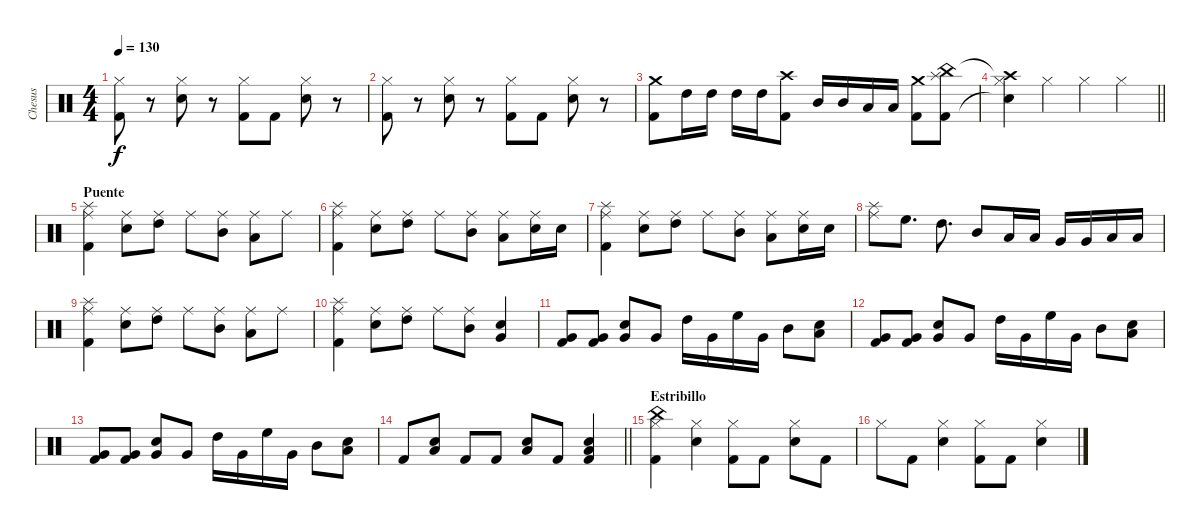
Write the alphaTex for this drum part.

\track ("Chesus" "Chesus") {instrument percussion}
\staff {score}
\articulation defaults
\ts (4 4)
\tempo 130
\clef neutral
\ks c
("Hi-Hat (closed)" "Kick (hit) 2").8{dy f} r.8 ("Hi-Hat (closed)" "Snare (hit) 2").8 r.8 ("Hi-Hat (closed)" "Kick (hit) 2").8 "Kick (hit) 2".8 ("Hi-Hat (closed)" "Snare (hit) 2").8 r.8 |
("Hi-Hat (closed)" "Kick (hit) 2").8 r.8 ("Hi-Hat (closed)" "Snare (hit) 2").8 r.8 ("Hi-Hat (closed)" "Kick (hit) 2").8 "Kick (hit) 2".8 ("Hi-Hat (closed)" "Snare (hit) 2").8 r.8 |
("Crash medium (hit)" "Kick (hit) 2").8 "High Tom (hit)".16 "High Tom (hit)".16 "High Tom (hit)".16 "High Tom (hit)".16 ("Crash high (hit)" "Kick (hit) 2").8 "Mid Tom (hit)".16 "Mid Tom (hit)".16 "Low Tom (hit)".16 "Low Tom (hit)".16 ("Crash medium (hit)" "Kick (hit) 2").8 ("China (hit)" "Splash (hit)" "Kick (hit) 2").8 |
\barLineRight lightlight
("Crash high (hit)"{t} "Hi-Hat (closed)" "Snare (hit)"{t}).4 "Hi-Hat (closed)".4 "Hi-Hat (closed)".4 "Hi-Hat (closed)".4 |
\section ("" "Puente")
("Splash (hit)" "Ride (middle)" "Kick (hit) 2").4 ("Ride (middle)" "Snare (hit) 2").8 ("Ride (middle)" "High Tom (hit)").8 "Ride (middle)".8 ("Ride (middle)" "Mid Tom (hit)").8 ("Ride (middle)" "Low Tom (hit)").8 "Ride (middle)".8 |
("Splash (hit)" "Ride (middle)" "Kick (hit) 2").4 ("Ride (middle)" "Snare (hit) 2").8 ("Ride (middle)" "High Tom (hit)").8 "Ride (middle)".8 ("Ride (middle)" "Mid Tom (hit)").8 ("Ride (middle)" "Low Tom (hit)").8 ("Ride (middle)" "Snare (hit) 2").16 "Snare (hit) 2".16 |
("Splash (hit)" "Ride (middle)" "Kick (hit) 2").4 ("Ride (middle)" "Snare (hit) 2").8 ("Ride (middle)" "High Tom (hit)").8 "Ride (middle)".8 ("Ride (middle)" "Mid Tom (hit)").8 ("Ride (middle)" "Low Tom (hit)").8 ("Ride (middle)" "Snare (hit) 2").16 "Snare (hit) 2".16 |
("Splash (hit)" "Ride (middle)").8 "High Floor Tom (hit)".8{d} "High Tom (hit)".8{d} "Mid Tom (hit)".8 "Low Tom (hit)".16 "Low Tom (hit)".16 "Very Low Tom (hit)".16 "Very Low Tom (hit)".16 "Low Floor Tom (hit)".16 "Low Floor Tom (hit)".16 |
("Splash (hit)" "Ride (middle)" "Kick (hit) 2").4 ("Ride (middle)" "Snare (hit) 2").8 ("Ride (middle)" "High Tom (hit)").8 "Ride (middle)".8 ("Ride (middle)" "Mid Tom (hit)").8 ("Ride (middle)" "Low Tom (hit)").8 "Ride (middle)".8 |
("Splash (hit)" "Ride (middle)" "Kick (hit) 2").4 ("Ride (middle)" "Snare (hit) 2").8 ("Ride (middle)" "High Tom (hit)").8 "Ride (middle)".8 ("Ride (middle)" "Mid Tom (hit)").8 ("Very Low Tom (hit)" "Snare (hit) 2").4 |
("Very Low Tom (hit)" "Kick (hit) 2").8 ("Very Low Tom (hit)" "Kick (hit) 2").8 ("Snare (hit) 2" "Very Low Tom (hit)").8 "Very Low Tom (hit)".8 "High Tom (hit)".16 "Very Low Tom (hit)".16 "High Floor Tom (hit)".16 "Very Low Tom (hit)".16 "Mid Tom (hit)".8 ("Snare (hit) 2" "Low Floor Tom (hit)").8 |
("Very Low Tom (hit)" "Kick (hit) 2").8 ("Very Low Tom (hit)" "Kick (hit) 2").8 ("Snare (hit) 2" "Very Low Tom (hit)").8 "Very Low Tom (hit)".8 "High Tom (hit)".16 "Very Low Tom (hit)".16 "High Floor Tom (hit)".16 "Very Low Tom (hit)".16 "Mid Tom (hit)".8 ("Snare (hit) 2" "Low Floor Tom (hit)").8 |
("Very Low Tom (hit)" "Kick (hit) 2").8 ("Very Low Tom (hit)" "Kick (hit) 2").8 ("Snare (hit) 2" "Very Low Tom (hit)").8 "Very Low Tom (hit)".8 "High Tom (hit)".16 "Very Low Tom (hit)".16 "High Floor Tom (hit)".16 "Very Low Tom (hit)".16 "Mid Tom (hit)".8 ("Snare (hit) 2" "Low Floor Tom (hit)").8 |
\barLineRight lightlight "Kick (hit) 2".8
("Snare (hit) 2" "Low Floor Tom (hit)").8 "Kick (hit) 2".8 "Kick (hit) 2".8 ("Snare (hit) 2" "Low Floor Tom (hit)").8 "Kick (hit) 2".8 ("Snare (hit) 2" "Low Floor Tom (hit)" "Kick (hit) 2").4 |
\section ("" "Estribillo")
("China (hit)" "Hi-Hat (closed)" "Kick (hit) 2").4 ("Hi-Hat (closed)" "Snare (hit) 2").4 ("Hi-Hat (closed)" "Kick (hit) 2").8 "Kick (hit) 2".8 ("Hi-Hat (closed)" "Snare (hit) 2").8 "Kick (hit) 2".8 |
"Hi-Hat (closed)".8 "Kick (hit) 2".8 ("Hi-Hat (closed)" "Snare (hit) 2").4 ("Hi-Hat (closed)" "Kick (hit) 2").8 "Kick (hit) 2".8 ("Hi-Hat (closed)" "Snare (hit) 2").4
